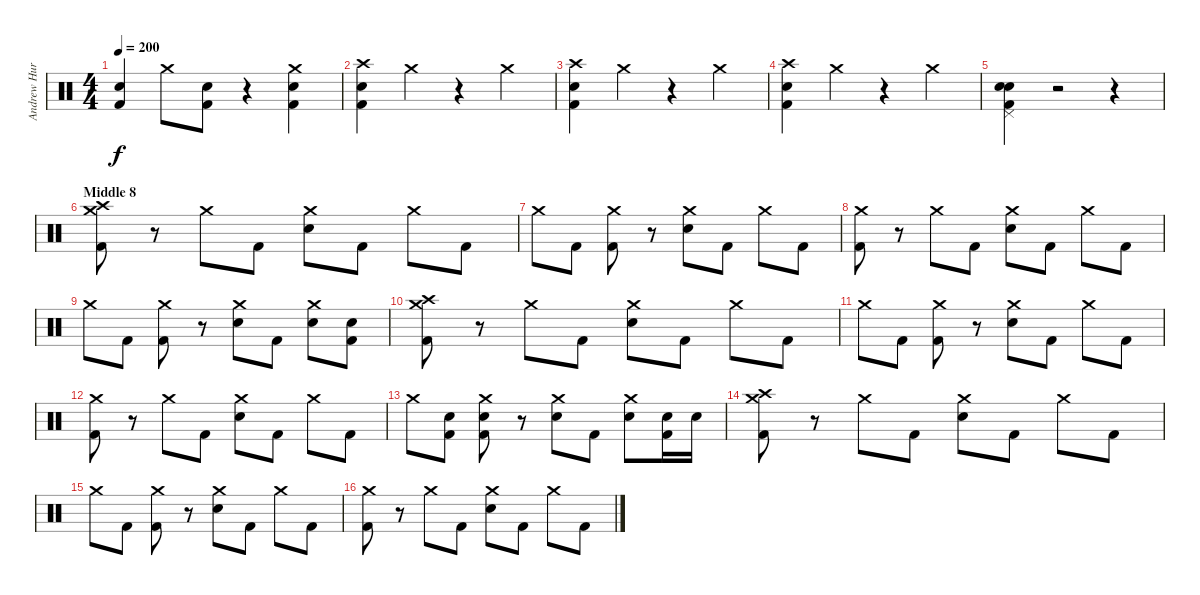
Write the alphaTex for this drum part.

\track ("Andrew Hurley (Drums)" "Andrew Hur") {instrument percussion}
\staff {score}
\articulation defaults
\ts (4 4)
\tempo 200
\clef neutral
\ks c
("Electric Snare (hit)" "Kick (hit) 2").4{dy f} "Crash medium (hit)".8 ("Electric Snare (hit)" "Kick (hit) 2").8 r.4 ("Crash medium (hit)" "Electric Snare (hit)" "Kick (hit) 2").4 |
("Crash high (hit)" "Electric Snare (hit)" "Kick (hit) 2").4 "Crash medium (hit)".4 r.4 "Crash medium (hit)".4 |
("Crash high (hit)" "Electric Snare (hit)" "Kick (hit) 2").4 "Crash medium (hit)".4 r.4 "Crash medium (hit)".4 |
("Crash high (hit)" "Electric Snare (hit)" "Kick (hit) 2").4 "Crash medium (hit)".4 r.4 "Crash medium (hit)".4 |
("Pedal Hi-Hat (hit)" "Snare (hit) 2" "Electric Snare (hit)" "Kick (hit) 2").4 r.2 r.4 |
\section ("" "Middle 8")
("Crash medium (hit)" "Crash high (hit)" "Kick (hit) 2").8 r.8 "Crash medium (hit)".8 "Kick (hit) 2".8 ("Crash medium (hit)" "Electric Snare (hit)").8 "Kick (hit) 2".8 "Crash medium (hit)".8 "Kick (hit) 2".8 |
"Crash medium (hit)".8 "Kick (hit) 2".8 ("Crash medium (hit)" "Kick (hit) 2").8 r.8 ("Crash medium (hit)" "Electric Snare (hit)").8 "Kick (hit) 2".8 "Crash medium (hit)".8 "Kick (hit) 2".8 |
("Crash medium (hit)" "Kick (hit) 2").8 r.8 "Crash medium (hit)".8 "Kick (hit) 2".8 ("Crash medium (hit)" "Electric Snare (hit)").8 "Kick (hit) 2".8 "Crash medium (hit)".8 "Kick (hit) 2".8 |
"Crash medium (hit)".8 "Kick (hit) 2".8 ("Crash medium (hit)" "Kick (hit) 2").8 r.8 ("Crash medium (hit)" "Electric Snare (hit)").8 "Kick (hit) 2".8 ("Crash medium (hit)" "Electric Snare (hit)").8 ("Electric Snare (hit)" "Kick (hit) 2").8 |
("Crash medium (hit)" "Crash high (hit)" "Kick (hit) 2").8 r.8 "Crash medium (hit)".8 "Kick (hit) 2".8 ("Crash medium (hit)" "Electric Snare (hit)").8 "Kick (hit) 2".8 "Crash medium (hit)".8 "Kick (hit) 2".8 |
"Crash medium (hit)".8 "Kick (hit) 2".8 ("Crash medium (hit)" "Kick (hit) 2").8 r.8 ("Crash medium (hit)" "Electric Snare (hit)").8 "Kick (hit) 2".8 "Crash medium (hit)".8 "Kick (hit) 2".8 |
("Crash medium (hit)" "Kick (hit) 2").8 r.8 "Crash medium (hit)".8 "Kick (hit) 2".8 ("Crash medium (hit)" "Electric Snare (hit)").8 "Kick (hit) 2".8 "Crash medium (hit)".8 "Kick (hit) 2".8 |
"Crash medium (hit)".8 ("Electric Snare (hit)" "Kick (hit) 2").8 ("Crash medium (hit)" "Electric Snare (hit)" "Kick (hit) 2").8 r.8 ("Crash medium (hit)" "Electric Snare (hit)").8 "Kick (hit) 2".8 ("Crash medium (hit)" "Electric Snare (hit)").8 ("Electric Snare (hit)" "Kick (hit) 2").16 "Electric Snare (hit)".16 |
("Crash medium (hit)" "Crash high (hit)" "Kick (hit) 2").8 r.8 "Crash medium (hit)".8 "Kick (hit) 2".8 ("Crash medium (hit)" "Electric Snare (hit)").8 "Kick (hit) 2".8 "Crash medium (hit)".8 "Kick (hit) 2".8 |
"Crash medium (hit)".8 "Kick (hit) 2".8 ("Crash medium (hit)" "Kick (hit) 2").8 r.8 ("Crash medium (hit)" "Electric Snare (hit)").8 "Kick (hit) 2".8 "Crash medium (hit)".8 "Kick (hit) 2".8 |
("Crash medium (hit)" "Kick (hit) 2").8 r.8 "Crash medium (hit)".8 "Kick (hit) 2".8 ("Crash medium (hit)" "Electric Snare (hit)").8 "Kick (hit) 2".8 "Crash medium (hit)".8 "Kick (hit) 2".8
